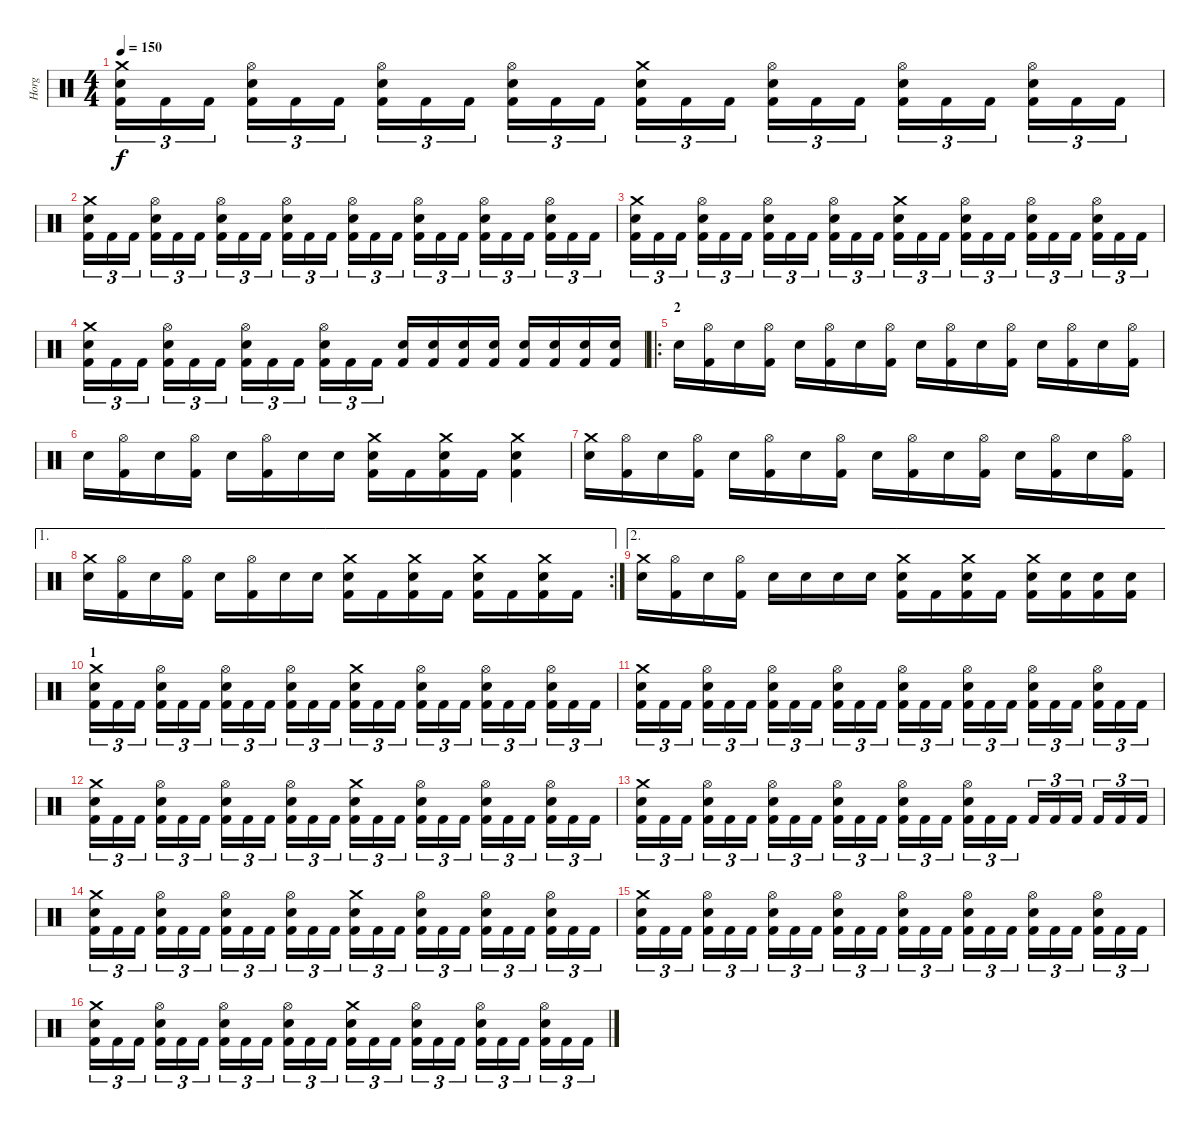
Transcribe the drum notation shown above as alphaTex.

\track ("Horg" "Horg") {instrument percussion}
\staff {score}
\articulation defaults
\ts (4 4)
\tempo 150
\clef neutral
\ks c
("Crash medium (hit)" "Snare (hit) 2" "Kick (hit) 2").16{tu (3 2) dy f} "Kick (hit) 2".16{tu (3 2)} "Kick (hit) 2".16{tu (3 2)} ("Hi-Hat (open)" "Snare (hit) 2" "Kick (hit) 2").16{tu (3 2)} "Kick (hit) 2".16{tu (3 2)} "Kick (hit) 2".16{tu (3 2)} ("Hi-Hat (open)" "Snare (hit) 2" "Kick (hit) 2").16{tu (3 2)} "Kick (hit) 2".16{tu (3 2)} "Kick (hit) 2".16{tu (3 2)} ("Hi-Hat (open)" "Snare (hit) 2" "Kick (hit) 2").16{tu (3 2)} "Kick (hit) 2".16{tu (3 2)} "Kick (hit) 2".16{tu (3 2)} ("Crash medium (hit)" "Snare (hit) 2" "Kick (hit) 2").16{tu (3 2)} "Kick (hit) 2".16{tu (3 2)} "Kick (hit) 2".16{tu (3 2)} ("Hi-Hat (open)" "Snare (hit) 2" "Kick (hit) 2").16{tu (3 2)} "Kick (hit) 2".16{tu (3 2)} "Kick (hit) 2".16{tu (3 2)} ("Hi-Hat (open)" "Snare (hit) 2" "Kick (hit) 2").16{tu (3 2)} "Kick (hit) 2".16{tu (3 2)} "Kick (hit) 2".16{tu (3 2)} ("Hi-Hat (open)" "Snare (hit) 2" "Kick (hit) 2").16{tu (3 2)} "Kick (hit) 2".16{tu (3 2)} "Kick (hit) 2".16{tu (3 2)} |
("Crash medium (hit)" "Snare (hit) 2" "Kick (hit) 2").16{tu (3 2)} "Kick (hit) 2".16{tu (3 2)} "Kick (hit) 2".16{tu (3 2)} ("Hi-Hat (open)" "Snare (hit) 2" "Kick (hit) 2").16{tu (3 2)} "Kick (hit) 2".16{tu (3 2)} "Kick (hit) 2".16{tu (3 2)} ("Hi-Hat (open)" "Snare (hit) 2" "Kick (hit) 2").16{tu (3 2)} "Kick (hit) 2".16{tu (3 2)} "Kick (hit) 2".16{tu (3 2)} ("Hi-Hat (open)" "Snare (hit) 2" "Kick (hit) 2").16{tu (3 2)} "Kick (hit) 2".16{tu (3 2)} "Kick (hit) 2".16{tu (3 2)} ("Hi-Hat (open)" "Snare (hit) 2" "Kick (hit) 2").16{tu (3 2)} "Kick (hit) 2".16{tu (3 2)} "Kick (hit) 2".16{tu (3 2)} ("Hi-Hat (open)" "Snare (hit) 2" "Kick (hit) 2").16{tu (3 2)} "Kick (hit) 2".16{tu (3 2)} "Kick (hit) 2".16{tu (3 2)} ("Hi-Hat (open)" "Snare (hit) 2" "Kick (hit) 2").16{tu (3 2)} "Kick (hit) 2".16{tu (3 2)} "Kick (hit) 2".16{tu (3 2)} ("Hi-Hat (open)" "Snare (hit) 2" "Kick (hit) 2").16{tu (3 2)} "Kick (hit) 2".16{tu (3 2)} "Kick (hit) 2".16{tu (3 2)} |
("Crash medium (hit)" "Snare (hit) 2" "Kick (hit) 2").16{tu (3 2)} "Kick (hit) 2".16{tu (3 2)} "Kick (hit) 2".16{tu (3 2)} ("Hi-Hat (open)" "Snare (hit) 2" "Kick (hit) 2").16{tu (3 2)} "Kick (hit) 2".16{tu (3 2)} "Kick (hit) 2".16{tu (3 2)} ("Hi-Hat (open)" "Snare (hit) 2" "Kick (hit) 2").16{tu (3 2)} "Kick (hit) 2".16{tu (3 2)} "Kick (hit) 2".16{tu (3 2)} ("Hi-Hat (open)" "Snare (hit) 2" "Kick (hit) 2").16{tu (3 2)} "Kick (hit) 2".16{tu (3 2)} "Kick (hit) 2".16{tu (3 2)} ("Crash medium (hit)" "Snare (hit) 2" "Kick (hit) 2").16{tu (3 2)} "Kick (hit) 2".16{tu (3 2)} "Kick (hit) 2".16{tu (3 2)} ("Hi-Hat (open)" "Snare (hit) 2" "Kick (hit) 2").16{tu (3 2)} "Kick (hit) 2".16{tu (3 2)} "Kick (hit) 2".16{tu (3 2)} ("Hi-Hat (open)" "Snare (hit) 2" "Kick (hit) 2").16{tu (3 2)} "Kick (hit) 2".16{tu (3 2)} "Kick (hit) 2".16{tu (3 2)} ("Hi-Hat (open)" "Snare (hit) 2" "Kick (hit) 2").16{tu (3 2)} "Kick (hit) 2".16{tu (3 2)} "Kick (hit) 2".16{tu (3 2)} |
("Crash medium (hit)" "Snare (hit) 2" "Kick (hit) 2").16{tu (3 2)} "Kick (hit) 2".16{tu (3 2)} "Kick (hit) 2".16{tu (3 2)} ("Hi-Hat (open)" "Snare (hit) 2" "Kick (hit) 2").16{tu (3 2)} "Kick (hit) 2".16{tu (3 2)} "Kick (hit) 2".16{tu (3 2)} ("Hi-Hat (open)" "Snare (hit) 2" "Kick (hit) 2").16{tu (3 2)} "Kick (hit) 2".16{tu (3 2)} "Kick (hit) 2".16{tu (3 2)} ("Hi-Hat (open)" "Snare (hit) 2" "Kick (hit) 2").16{tu (3 2)} "Kick (hit) 2".16{tu (3 2)} "Kick (hit) 2".16{tu (3 2)} ("Snare (hit) 2" "Kick (hit) 2").16 ("Snare (hit) 2" "Kick (hit) 2").16 ("Snare (hit) 2" "Kick (hit) 2").16 ("Snare (hit) 2" "Kick (hit) 2").16 ("Snare (hit) 2" "Kick (hit) 2").16 ("Snare (hit) 2" "Kick (hit) 2").16 ("Snare (hit) 2" "Kick (hit) 2").16 ("Snare (hit) 2" "Kick (hit) 2").16 |
\ro
\section ("" "2")
"Snare (hit) 2".16 ("Hi-Hat (open)" "Kick (hit) 2").16 "Snare (hit) 2".16 ("Hi-Hat (open)" "Kick (hit) 2").16 "Snare (hit) 2".16 ("Hi-Hat (open)" "Kick (hit) 2").16 "Snare (hit) 2".16 ("Hi-Hat (open)" "Kick (hit) 2").16 "Snare (hit) 2".16 ("Hi-Hat (open)" "Kick (hit) 2").16 "Snare (hit) 2".16 ("Hi-Hat (open)" "Kick (hit) 2").16 "Snare (hit) 2".16 ("Hi-Hat (open)" "Kick (hit) 2").16 "Snare (hit) 2".16 ("Hi-Hat (open)" "Kick (hit) 2").16 |
"Snare (hit) 2".16 ("Hi-Hat (open)" "Kick (hit) 2").16 "Snare (hit) 2".16 ("Hi-Hat (open)" "Kick (hit) 2").16 "Snare (hit) 2".16 ("Hi-Hat (open)" "Kick (hit) 2").16 "Snare (hit) 2".16 "Snare (hit) 2".16 ("Crash medium (hit)" "Snare (hit) 2" "Kick (hit) 2").16 "Kick (hit) 2".16 ("Crash medium (hit)" "Snare (hit) 2" "Kick (hit) 2").16 "Kick (hit) 2".16 ("Crash medium (hit)" "Snare (hit) 2" "Kick (hit) 2").4 |
("Crash medium (hit)" "Snare (hit) 2").16 ("Hi-Hat (open)" "Kick (hit) 2").16 "Snare (hit) 2".16 ("Hi-Hat (open)" "Kick (hit) 2").16 "Snare (hit) 2".16 ("Hi-Hat (open)" "Kick (hit) 2").16 "Snare (hit) 2".16 ("Hi-Hat (open)" "Kick (hit) 2").16 "Snare (hit) 2".16 ("Hi-Hat (open)" "Kick (hit) 2").16 "Snare (hit) 2".16 ("Hi-Hat (open)" "Kick (hit) 2").16 "Snare (hit) 2".16 ("Hi-Hat (open)" "Kick (hit) 2").16 "Snare (hit) 2".16 ("Hi-Hat (open)" "Kick (hit) 2").16 |
\ae 1
\rc 2
("Crash medium (hit)" "Snare (hit) 2").16 ("Hi-Hat (open)" "Kick (hit) 2").16 "Snare (hit) 2".16 ("Hi-Hat (open)" "Kick (hit) 2").16 "Snare (hit) 2".16 ("Hi-Hat (open)" "Kick (hit) 2").16 "Snare (hit) 2".16 "Snare (hit) 2".16 ("Crash medium (hit)" "Snare (hit) 2" "Kick (hit) 2").16 "Kick (hit) 2".16 ("Crash medium (hit)" "Snare (hit) 2" "Kick (hit) 2").16 "Kick (hit) 2".16 ("Crash medium (hit)" "Snare (hit) 2" "Kick (hit) 2").16 "Kick (hit) 2".16 ("Crash medium (hit)" "Snare (hit) 2" "Kick (hit) 2").16 "Kick (hit) 2".16 |
\ae 2
("Crash medium (hit)" "Snare (hit) 2").16 ("Hi-Hat (open)" "Kick (hit) 2").16 "Snare (hit) 2".16 ("Hi-Hat (open)" "Kick (hit) 2").16 "Snare (hit) 2".16 "Snare (hit) 2".16 "Snare (hit) 2".16 "Snare (hit) 2".16 ("Crash medium (hit)" "Snare (hit) 2" "Kick (hit) 2").16 "Kick (hit) 2".16 ("Crash medium (hit)" "Snare (hit) 2" "Kick (hit) 2").16 "Kick (hit) 2".16 ("Crash medium (hit)" "Snare (hit) 2" "Kick (hit) 2").16 ("Snare (hit) 2" "Kick (hit) 2").16 ("Snare (hit) 2" "Kick (hit) 2").16 ("Snare (hit) 2" "Kick (hit) 2").16 |
\section ("" "1")
("Crash medium (hit)" "Snare (hit) 2" "Kick (hit) 2").16{tu (3 2)} "Kick (hit) 2".16{tu (3 2)} "Kick (hit) 2".16{tu (3 2)} ("Hi-Hat (open)" "Snare (hit) 2" "Kick (hit) 2").16{tu (3 2)} "Kick (hit) 2".16{tu (3 2)} "Kick (hit) 2".16{tu (3 2)} ("Hi-Hat (open)" "Snare (hit) 2" "Kick (hit) 2").16{tu (3 2)} "Kick (hit) 2".16{tu (3 2)} "Kick (hit) 2".16{tu (3 2)} ("Hi-Hat (open)" "Snare (hit) 2" "Kick (hit) 2").16{tu (3 2)} "Kick (hit) 2".16{tu (3 2)} "Kick (hit) 2".16{tu (3 2)} ("Crash medium (hit)" "Snare (hit) 2" "Kick (hit) 2").16{tu (3 2)} "Kick (hit) 2".16{tu (3 2)} "Kick (hit) 2".16{tu (3 2)} ("Hi-Hat (open)" "Snare (hit) 2" "Kick (hit) 2").16{tu (3 2)} "Kick (hit) 2".16{tu (3 2)} "Kick (hit) 2".16{tu (3 2)} ("Hi-Hat (open)" "Snare (hit) 2" "Kick (hit) 2").16{tu (3 2)} "Kick (hit) 2".16{tu (3 2)} "Kick (hit) 2".16{tu (3 2)} ("Hi-Hat (open)" "Snare (hit) 2" "Kick (hit) 2").16{tu (3 2)} "Kick (hit) 2".16{tu (3 2)} "Kick (hit) 2".16{tu (3 2)} |
("Crash medium (hit)" "Snare (hit) 2" "Kick (hit) 2").16{tu (3 2)} "Kick (hit) 2".16{tu (3 2)} "Kick (hit) 2".16{tu (3 2)} ("Hi-Hat (open)" "Snare (hit) 2" "Kick (hit) 2").16{tu (3 2)} "Kick (hit) 2".16{tu (3 2)} "Kick (hit) 2".16{tu (3 2)} ("Hi-Hat (open)" "Snare (hit) 2" "Kick (hit) 2").16{tu (3 2)} "Kick (hit) 2".16{tu (3 2)} "Kick (hit) 2".16{tu (3 2)} ("Hi-Hat (open)" "Snare (hit) 2" "Kick (hit) 2").16{tu (3 2)} "Kick (hit) 2".16{tu (3 2)} "Kick (hit) 2".16{tu (3 2)} ("Hi-Hat (open)" "Snare (hit) 2" "Kick (hit) 2").16{tu (3 2)} "Kick (hit) 2".16{tu (3 2)} "Kick (hit) 2".16{tu (3 2)} ("Hi-Hat (open)" "Snare (hit) 2" "Kick (hit) 2").16{tu (3 2)} "Kick (hit) 2".16{tu (3 2)} "Kick (hit) 2".16{tu (3 2)} ("Hi-Hat (open)" "Snare (hit) 2" "Kick (hit) 2").16{tu (3 2)} "Kick (hit) 2".16{tu (3 2)} "Kick (hit) 2".16{tu (3 2)} ("Hi-Hat (open)" "Snare (hit) 2" "Kick (hit) 2").16{tu (3 2)} "Kick (hit) 2".16{tu (3 2)} "Kick (hit) 2".16{tu (3 2)} |
("Crash medium (hit)" "Snare (hit) 2" "Kick (hit) 2").16{tu (3 2)} "Kick (hit) 2".16{tu (3 2)} "Kick (hit) 2".16{tu (3 2)} ("Hi-Hat (open)" "Snare (hit) 2" "Kick (hit) 2").16{tu (3 2)} "Kick (hit) 2".16{tu (3 2)} "Kick (hit) 2".16{tu (3 2)} ("Hi-Hat (open)" "Snare (hit) 2" "Kick (hit) 2").16{tu (3 2)} "Kick (hit) 2".16{tu (3 2)} "Kick (hit) 2".16{tu (3 2)} ("Hi-Hat (open)" "Snare (hit) 2" "Kick (hit) 2").16{tu (3 2)} "Kick (hit) 2".16{tu (3 2)} "Kick (hit) 2".16{tu (3 2)} ("Crash medium (hit)" "Snare (hit) 2" "Kick (hit) 2").16{tu (3 2)} "Kick (hit) 2".16{tu (3 2)} "Kick (hit) 2".16{tu (3 2)} ("Hi-Hat (open)" "Snare (hit) 2" "Kick (hit) 2").16{tu (3 2)} "Kick (hit) 2".16{tu (3 2)} "Kick (hit) 2".16{tu (3 2)} ("Hi-Hat (open)" "Snare (hit) 2" "Kick (hit) 2").16{tu (3 2)} "Kick (hit) 2".16{tu (3 2)} "Kick (hit) 2".16{tu (3 2)} ("Hi-Hat (open)" "Snare (hit) 2" "Kick (hit) 2").16{tu (3 2)} "Kick (hit) 2".16{tu (3 2)} "Kick (hit) 2".16{tu (3 2)} |
("Crash medium (hit)" "Snare (hit) 2" "Kick (hit) 2").16{tu (3 2)} "Kick (hit) 2".16{tu (3 2)} "Kick (hit) 2".16{tu (3 2)} ("Hi-Hat (open)" "Snare (hit) 2" "Kick (hit) 2").16{tu (3 2)} "Kick (hit) 2".16{tu (3 2)} "Kick (hit) 2".16{tu (3 2)} ("Hi-Hat (open)" "Snare (hit) 2" "Kick (hit) 2").16{tu (3 2)} "Kick (hit) 2".16{tu (3 2)} "Kick (hit) 2".16{tu (3 2)} ("Hi-Hat (open)" "Snare (hit) 2" "Kick (hit) 2").16{tu (3 2)} "Kick (hit) 2".16{tu (3 2)} "Kick (hit) 2".16{tu (3 2)} ("Hi-Hat (open)" "Snare (hit) 2" "Kick (hit) 2").16{tu (3 2)} "Kick (hit) 2".16{tu (3 2)} "Kick (hit) 2".16{tu (3 2)} ("Hi-Hat (open)" "Snare (hit) 2" "Kick (hit) 2").16{tu (3 2)} "Kick (hit) 2".16{tu (3 2)} "Kick (hit) 2".16{tu (3 2)} "Kick (hit) 2".16{tu (3 2)} "Kick (hit) 2".16{tu (3 2)} "Kick (hit) 2".16{tu (3 2)} "Kick (hit) 2".16{tu (3 2)} "Kick (hit) 2".16{tu (3 2)} "Kick (hit) 2".16{tu (3 2)} |
("Crash medium (hit)" "Snare (hit) 2" "Kick (hit) 2").16{tu (3 2)} "Kick (hit) 2".16{tu (3 2)} "Kick (hit) 2".16{tu (3 2)} ("Hi-Hat (open)" "Snare (hit) 2" "Kick (hit) 2").16{tu (3 2)} "Kick (hit) 2".16{tu (3 2)} "Kick (hit) 2".16{tu (3 2)} ("Hi-Hat (open)" "Snare (hit) 2" "Kick (hit) 2").16{tu (3 2)} "Kick (hit) 2".16{tu (3 2)} "Kick (hit) 2".16{tu (3 2)} ("Hi-Hat (open)" "Snare (hit) 2" "Kick (hit) 2").16{tu (3 2)} "Kick (hit) 2".16{tu (3 2)} "Kick (hit) 2".16{tu (3 2)} ("Crash medium (hit)" "Snare (hit) 2" "Kick (hit) 2").16{tu (3 2)} "Kick (hit) 2".16{tu (3 2)} "Kick (hit) 2".16{tu (3 2)} ("Hi-Hat (open)" "Snare (hit) 2" "Kick (hit) 2").16{tu (3 2)} "Kick (hit) 2".16{tu (3 2)} "Kick (hit) 2".16{tu (3 2)} ("Hi-Hat (open)" "Snare (hit) 2" "Kick (hit) 2").16{tu (3 2)} "Kick (hit) 2".16{tu (3 2)} "Kick (hit) 2".16{tu (3 2)} ("Hi-Hat (open)" "Snare (hit) 2" "Kick (hit) 2").16{tu (3 2)} "Kick (hit) 2".16{tu (3 2)} "Kick (hit) 2".16{tu (3 2)} |
("Crash medium (hit)" "Snare (hit) 2" "Kick (hit) 2").16{tu (3 2)} "Kick (hit) 2".16{tu (3 2)} "Kick (hit) 2".16{tu (3 2)} ("Hi-Hat (open)" "Snare (hit) 2" "Kick (hit) 2").16{tu (3 2)} "Kick (hit) 2".16{tu (3 2)} "Kick (hit) 2".16{tu (3 2)} ("Hi-Hat (open)" "Snare (hit) 2" "Kick (hit) 2").16{tu (3 2)} "Kick (hit) 2".16{tu (3 2)} "Kick (hit) 2".16{tu (3 2)} ("Hi-Hat (open)" "Snare (hit) 2" "Kick (hit) 2").16{tu (3 2)} "Kick (hit) 2".16{tu (3 2)} "Kick (hit) 2".16{tu (3 2)} ("Hi-Hat (open)" "Snare (hit) 2" "Kick (hit) 2").16{tu (3 2)} "Kick (hit) 2".16{tu (3 2)} "Kick (hit) 2".16{tu (3 2)} ("Hi-Hat (open)" "Snare (hit) 2" "Kick (hit) 2").16{tu (3 2)} "Kick (hit) 2".16{tu (3 2)} "Kick (hit) 2".16{tu (3 2)} ("Hi-Hat (open)" "Snare (hit) 2" "Kick (hit) 2").16{tu (3 2)} "Kick (hit) 2".16{tu (3 2)} "Kick (hit) 2".16{tu (3 2)} ("Hi-Hat (open)" "Snare (hit) 2" "Kick (hit) 2").16{tu (3 2)} "Kick (hit) 2".16{tu (3 2)} "Kick (hit) 2".16{tu (3 2)} |
("Crash medium (hit)" "Snare (hit) 2" "Kick (hit) 2").16{tu (3 2)} "Kick (hit) 2".16{tu (3 2)} "Kick (hit) 2".16{tu (3 2)} ("Hi-Hat (open)" "Snare (hit) 2" "Kick (hit) 2").16{tu (3 2)} "Kick (hit) 2".16{tu (3 2)} "Kick (hit) 2".16{tu (3 2)} ("Hi-Hat (open)" "Snare (hit) 2" "Kick (hit) 2").16{tu (3 2)} "Kick (hit) 2".16{tu (3 2)} "Kick (hit) 2".16{tu (3 2)} ("Hi-Hat (open)" "Snare (hit) 2" "Kick (hit) 2").16{tu (3 2)} "Kick (hit) 2".16{tu (3 2)} "Kick (hit) 2".16{tu (3 2)} ("Crash medium (hit)" "Snare (hit) 2" "Kick (hit) 2").16{tu (3 2)} "Kick (hit) 2".16{tu (3 2)} "Kick (hit) 2".16{tu (3 2)} ("Hi-Hat (open)" "Snare (hit) 2" "Kick (hit) 2").16{tu (3 2)} "Kick (hit) 2".16{tu (3 2)} "Kick (hit) 2".16{tu (3 2)} ("Hi-Hat (open)" "Snare (hit) 2" "Kick (hit) 2").16{tu (3 2)} "Kick (hit) 2".16{tu (3 2)} "Kick (hit) 2".16{tu (3 2)} ("Hi-Hat (open)" "Snare (hit) 2" "Kick (hit) 2").16{tu (3 2)} "Kick (hit) 2".16{tu (3 2)} "Kick (hit) 2".16{tu (3 2)}
